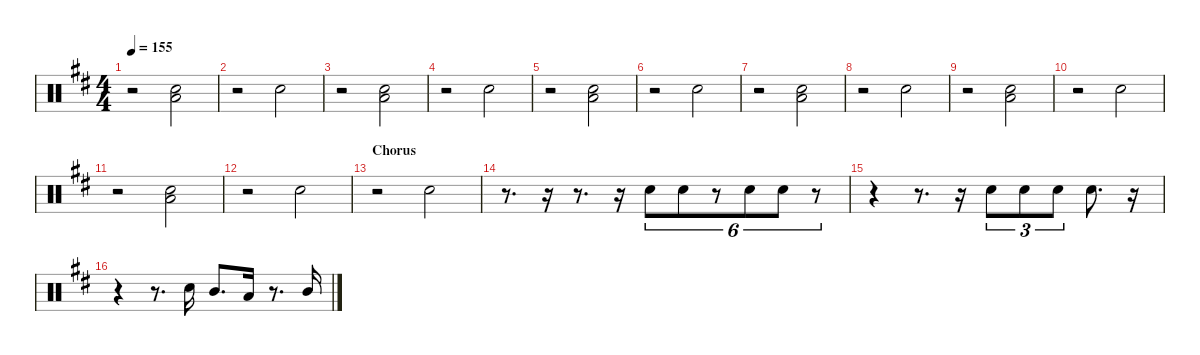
\hideDynamics
\bracketExtendMode nobrackets
\singleTrackTrackNamePolicy hidden
\multiTrackTrackNamePolicy hidden
\otherSystemsTrackNameOrientation horizontal
\track ("Drums" "Drums") {instrument percussion}
\staff {score}
\articulation defaults
\ts (4 4)
\tempo 155
\clef neutral
\ks d
r.2{dy mf beam Down} ("Snare (hit) 2"{acc forcenatural} "Low Tom (hit)"{acc forcenatural}).2{beam Down} |
r.2{beam Down} "Snare (hit) 2"{acc forcenatural}.2{beam Down} |
r.2{beam Down} ("Snare (hit) 2"{acc forcenatural} "Low Tom (hit)"{acc forcenatural}).2{beam Down} |
r.2{beam Down} "Snare (hit) 2"{acc forcenatural}.2{beam Down} |
r.2{beam Down} ("Snare (hit) 2"{acc forcenatural} "Low Tom (hit)"{acc forcenatural}).2{beam Down} |
r.2{beam Down} "Snare (hit) 2"{acc forcenatural}.2{beam Down} |
r.2{beam Down} ("Snare (hit) 2"{acc forcenatural} "Low Tom (hit)"{acc forcenatural}).2{beam Down} |
r.2{beam Down} "Snare (hit) 2"{acc forcenatural}.2{beam Down} |
r.2{beam Down} ("Snare (hit) 2"{acc forcenatural} "Low Tom (hit)"{acc forcenatural}).2{beam Down} |
r.2{beam Down} "Snare (hit) 2"{acc forcenatural}.2{beam Down} |
r.2{beam Down} ("Snare (hit) 2"{acc forcenatural} "Low Tom (hit)"{acc forcenatural}).2{beam Down} |
r.2{beam Down} "Snare (hit) 2"{acc forcenatural}.2{beam Down} |
\section ("" "Chorus")
r.2{beam Down} "Snare (hit) 2"{acc forcenatural}.2{beam Down} |
r.8{d beam Down} r.16{beam Down} r.8{d beam Down} r.16{beam Down} "Snare (hit) 2"{acc forcenatural}.8{tu (6 4) beam Down} "Snare (hit) 2"{acc forcenatural}.8{tu (6 4) dy p beam Down} r.8{tu (6 4) beam Down} "Snare (hit) 2"{acc forcenatural}.8{tu (6 4) dy mp beam Down} "Snare (hit) 2"{acc forcenatural}.8{tu (6 4) dy p beam Down} r.8{tu (6 4) beam Down} |
r.4{beam Down} r.8{d beam Down} r.16{beam Down} "Snare (hit) 2"{acc forcenatural}.8{tu (3 2) dy mf beam Down} "Snare (hit) 2"{acc forcenatural}.8{tu (3 2) dy mp beam Down} "Snare (hit) 2"{acc forcenatural}.8{tu (3 2) beam Down} "Snare (hit) 2"{acc forcenatural}.8{d dy mf beam Down} r.16{beam Down} |
r.4{beam Down} r.8{d beam Down} "Snare (hit) 2"{acc forcenatural}.16{dy mp beam Down} "Mid Tom (hit)"{acc forcenatural}.8{d beam Up} "Low Tom (hit)"{acc forcenatural}.16{dy mf beam Up} r.8{d beam Up} "Mid Tom (hit)"{acc forcenatural}.16{dy mp beam Up}
